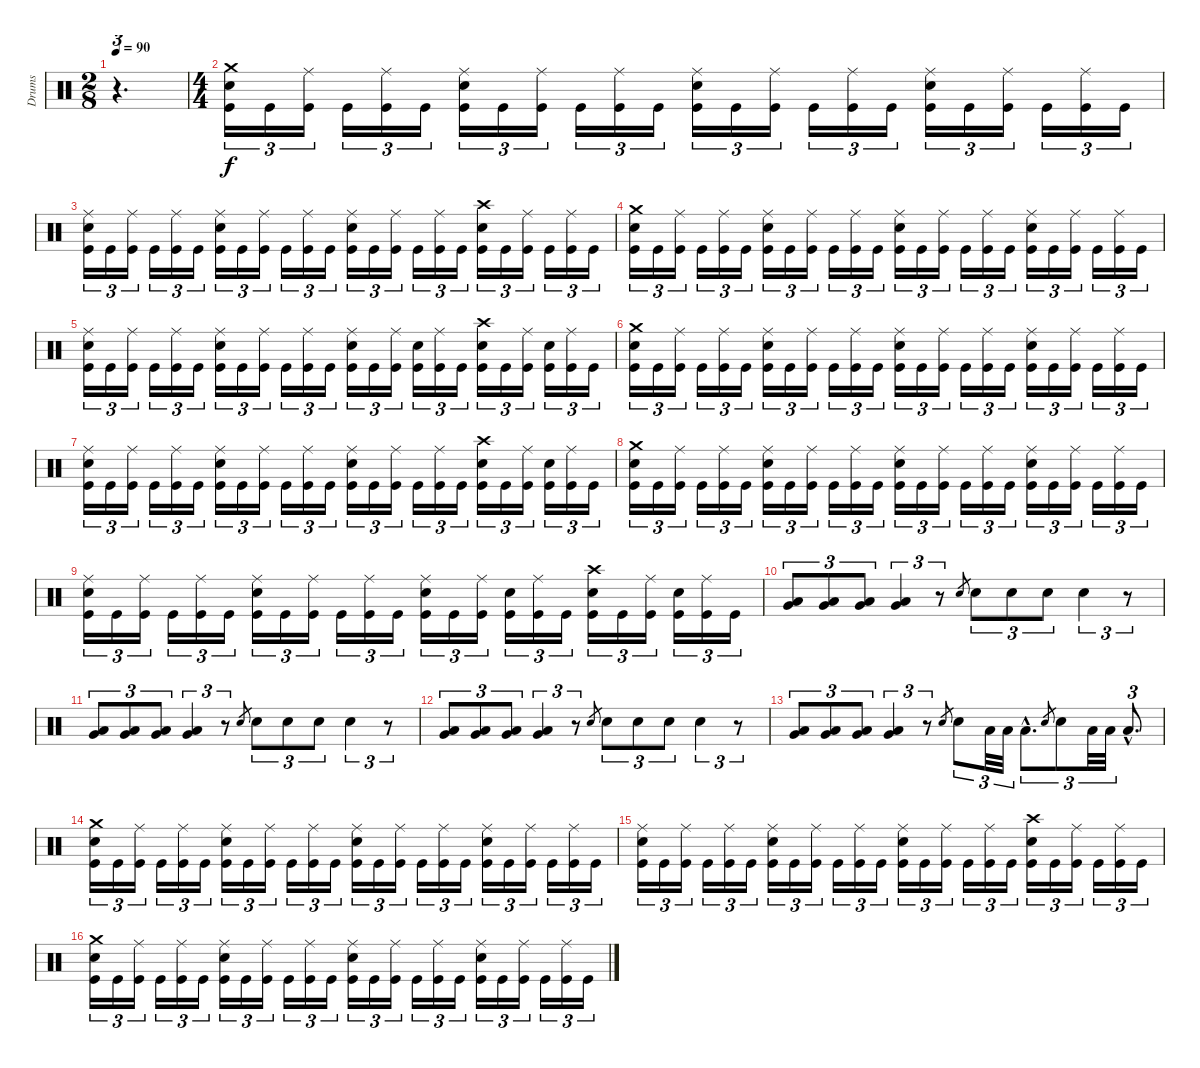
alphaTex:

\track ("Drums" "Drums") {instrument percussion}
\staff {score}
\articulation defaults
\ts (2 8)
\tempo 90
\clef neutral
\ks c
r.4{d tu (3 2) dy f} |
\ts (4 4)
("Crash medium (hit)" "Snare (hit) 2" "Kick (hit)").16{tu (3 2)} "Kick (hit)".16{tu (3 2)} ("Ride (middle)" "Kick (hit)").16{tu (3 2)} "Kick (hit)".16{tu (3 2)} ("Ride (middle)" "Kick (hit)").16{tu (3 2)} "Kick (hit)".16{tu (3 2)} ("Ride (middle)" "Snare (hit) 2" "Kick (hit)").16{tu (3 2)} "Kick (hit)".16{tu (3 2)} ("Ride (middle)" "Kick (hit)").16{tu (3 2)} "Kick (hit)".16{tu (3 2)} ("Ride (middle)" "Kick (hit)").16{tu (3 2)} "Kick (hit)".16{tu (3 2)} ("Ride (middle)" "Snare (hit) 2" "Kick (hit)").16{tu (3 2)} "Kick (hit)".16{tu (3 2)} ("Ride (middle)" "Kick (hit)").16{tu (3 2)} "Kick (hit)".16{tu (3 2)} ("Ride (middle)" "Kick (hit)").16{tu (3 2)} "Kick (hit)".16{tu (3 2)} ("Ride (middle)" "Snare (hit) 2" "Kick (hit)").16{tu (3 2)} "Kick (hit)".16{tu (3 2)} ("Ride (middle)" "Kick (hit)").16{tu (3 2)} "Kick (hit)".16{tu (3 2)} ("Ride (middle)" "Kick (hit)").16{tu (3 2)} "Kick (hit)".16{tu (3 2)} |
("Ride (middle)" "Snare (hit) 2" "Kick (hit)").16{tu (3 2)} "Kick (hit)".16{tu (3 2)} ("Ride (middle)" "Kick (hit)").16{tu (3 2)} "Kick (hit)".16{tu (3 2)} ("Ride (middle)" "Kick (hit)").16{tu (3 2)} "Kick (hit)".16{tu (3 2)} ("Ride (middle)" "Snare (hit) 2" "Kick (hit)").16{tu (3 2)} "Kick (hit)".16{tu (3 2)} ("Ride (middle)" "Kick (hit)").16{tu (3 2)} "Kick (hit)".16{tu (3 2)} ("Ride (middle)" "Kick (hit)").16{tu (3 2)} "Kick (hit)".16{tu (3 2)} ("Ride (middle)" "Snare (hit) 2" "Kick (hit)").16{tu (3 2)} "Kick (hit)".16{tu (3 2)} ("Ride (middle)" "Kick (hit)").16{tu (3 2)} "Kick (hit)".16{tu (3 2)} ("Ride (middle)" "Kick (hit)").16{tu (3 2)} "Kick (hit)".16{tu (3 2)} ("Crash high (hit)" "Snare (hit) 2" "Kick (hit)").16{tu (3 2)} "Kick (hit)".16{tu (3 2)} ("Ride (middle)" "Kick (hit)").16{tu (3 2)} "Kick (hit)".16{tu (3 2)} ("Ride (middle)" "Kick (hit)").16{tu (3 2)} "Kick (hit)".16{tu (3 2)} |
("Crash medium (hit)" "Snare (hit) 2" "Kick (hit)").16{tu (3 2)} "Kick (hit)".16{tu (3 2)} ("Ride (middle)" "Kick (hit)").16{tu (3 2)} "Kick (hit)".16{tu (3 2)} ("Ride (middle)" "Kick (hit)").16{tu (3 2)} "Kick (hit)".16{tu (3 2)} ("Ride (middle)" "Snare (hit) 2" "Kick (hit)").16{tu (3 2)} "Kick (hit)".16{tu (3 2)} ("Ride (middle)" "Kick (hit)").16{tu (3 2)} "Kick (hit)".16{tu (3 2)} ("Ride (middle)" "Kick (hit)").16{tu (3 2)} "Kick (hit)".16{tu (3 2)} ("Ride (middle)" "Snare (hit) 2" "Kick (hit)").16{tu (3 2)} "Kick (hit)".16{tu (3 2)} ("Ride (middle)" "Kick (hit)").16{tu (3 2)} "Kick (hit)".16{tu (3 2)} ("Ride (middle)" "Kick (hit)").16{tu (3 2)} "Kick (hit)".16{tu (3 2)} ("Ride (middle)" "Snare (hit) 2" "Kick (hit)").16{tu (3 2)} "Kick (hit)".16{tu (3 2)} ("Ride (middle)" "Kick (hit)").16{tu (3 2)} "Kick (hit)".16{tu (3 2)} ("Ride (middle)" "Kick (hit)").16{tu (3 2)} "Kick (hit)".16{tu (3 2)} |
("Ride (middle)" "Snare (hit) 2" "Kick (hit)").16{tu (3 2)} "Kick (hit)".16{tu (3 2)} ("Ride (middle)" "Kick (hit)").16{tu (3 2)} "Kick (hit)".16{tu (3 2)} ("Ride (middle)" "Kick (hit)").16{tu (3 2)} "Kick (hit)".16{tu (3 2)} ("Ride (middle)" "Snare (hit) 2" "Kick (hit)").16{tu (3 2)} "Kick (hit)".16{tu (3 2)} ("Ride (middle)" "Kick (hit)").16{tu (3 2)} "Kick (hit)".16{tu (3 2)} ("Ride (middle)" "Kick (hit)").16{tu (3 2)} "Kick (hit)".16{tu (3 2)} ("Ride (middle)" "Snare (hit) 2" "Kick (hit)").16{tu (3 2)} "Kick (hit)".16{tu (3 2)} ("Ride (middle)" "Kick (hit)").16{tu (3 2)} ("Snare (hit) 2" "Kick (hit)").16{tu (3 2)} ("Ride (middle)" "Kick (hit)").16{tu (3 2)} "Kick (hit)".16{tu (3 2)} ("Crash high (hit)" "Snare (hit) 2" "Kick (hit)").16{tu (3 2)} "Kick (hit)".16{tu (3 2)} ("Ride (middle)" "Kick (hit)").16{tu (3 2)} ("Snare (hit) 2" "Kick (hit)").16{tu (3 2)} ("Ride (middle)" "Kick (hit)").16{tu (3 2)} "Kick (hit)".16{tu (3 2)} |
("Crash medium (hit)" "Snare (hit) 2" "Kick (hit)").16{tu (3 2)} "Kick (hit)".16{tu (3 2)} ("Ride (middle)" "Kick (hit)").16{tu (3 2)} "Kick (hit)".16{tu (3 2)} ("Ride (middle)" "Kick (hit)").16{tu (3 2)} "Kick (hit)".16{tu (3 2)} ("Ride (middle)" "Snare (hit) 2" "Kick (hit)").16{tu (3 2)} "Kick (hit)".16{tu (3 2)} ("Ride (middle)" "Kick (hit)").16{tu (3 2)} "Kick (hit)".16{tu (3 2)} ("Ride (middle)" "Kick (hit)").16{tu (3 2)} "Kick (hit)".16{tu (3 2)} ("Ride (middle)" "Snare (hit) 2" "Kick (hit)").16{tu (3 2)} "Kick (hit)".16{tu (3 2)} ("Ride (middle)" "Kick (hit)").16{tu (3 2)} "Kick (hit)".16{tu (3 2)} ("Ride (middle)" "Kick (hit)").16{tu (3 2)} "Kick (hit)".16{tu (3 2)} ("Ride (middle)" "Snare (hit) 2" "Kick (hit)").16{tu (3 2)} "Kick (hit)".16{tu (3 2)} ("Ride (middle)" "Kick (hit)").16{tu (3 2)} "Kick (hit)".16{tu (3 2)} ("Ride (middle)" "Kick (hit)").16{tu (3 2)} "Kick (hit)".16{tu (3 2)} |
("Ride (middle)" "Snare (hit) 2" "Kick (hit)").16{tu (3 2)} "Kick (hit)".16{tu (3 2)} ("Ride (middle)" "Kick (hit)").16{tu (3 2)} "Kick (hit)".16{tu (3 2)} ("Ride (middle)" "Kick (hit)").16{tu (3 2)} "Kick (hit)".16{tu (3 2)} ("Ride (middle)" "Snare (hit) 2" "Kick (hit)").16{tu (3 2)} "Kick (hit)".16{tu (3 2)} ("Ride (middle)" "Kick (hit)").16{tu (3 2)} "Kick (hit)".16{tu (3 2)} ("Ride (middle)" "Kick (hit)").16{tu (3 2)} "Kick (hit)".16{tu (3 2)} ("Ride (middle)" "Snare (hit) 2" "Kick (hit)").16{tu (3 2)} "Kick (hit)".16{tu (3 2)} ("Ride (middle)" "Kick (hit)").16{tu (3 2)} "Kick (hit)".16{tu (3 2)} ("Ride (middle)" "Kick (hit)").16{tu (3 2)} "Kick (hit)".16{tu (3 2)} ("Crash high (hit)" "Snare (hit) 2" "Kick (hit)").16{tu (3 2)} "Kick (hit)".16{tu (3 2)} ("Ride (middle)" "Kick (hit)").16{tu (3 2)} ("Snare (hit) 2" "Kick (hit)").16{tu (3 2)} ("Ride (middle)" "Kick (hit)").16{tu (3 2)} "Kick (hit)".16{tu (3 2)} |
("Crash medium (hit)" "Snare (hit) 2" "Kick (hit)").16{tu (3 2)} "Kick (hit)".16{tu (3 2)} ("Ride (middle)" "Kick (hit)").16{tu (3 2)} "Kick (hit)".16{tu (3 2)} ("Ride (middle)" "Kick (hit)").16{tu (3 2)} "Kick (hit)".16{tu (3 2)} ("Ride (middle)" "Snare (hit) 2" "Kick (hit)").16{tu (3 2)} "Kick (hit)".16{tu (3 2)} ("Ride (middle)" "Kick (hit)").16{tu (3 2)} "Kick (hit)".16{tu (3 2)} ("Ride (middle)" "Kick (hit)").16{tu (3 2)} "Kick (hit)".16{tu (3 2)} ("Ride (middle)" "Snare (hit) 2" "Kick (hit)").16{tu (3 2)} "Kick (hit)".16{tu (3 2)} ("Ride (middle)" "Kick (hit)").16{tu (3 2)} "Kick (hit)".16{tu (3 2)} ("Ride (middle)" "Kick (hit)").16{tu (3 2)} "Kick (hit)".16{tu (3 2)} ("Ride (middle)" "Snare (hit) 2" "Kick (hit)").16{tu (3 2)} "Kick (hit)".16{tu (3 2)} ("Ride (middle)" "Kick (hit)").16{tu (3 2)} "Kick (hit)".16{tu (3 2)} ("Ride (middle)" "Kick (hit)").16{tu (3 2)} "Kick (hit)".16{tu (3 2)} |
("Ride (middle)" "Snare (hit) 2" "Kick (hit)").16{tu (3 2)} "Kick (hit)".16{tu (3 2)} ("Ride (middle)" "Kick (hit)").16{tu (3 2)} "Kick (hit)".16{tu (3 2)} ("Ride (middle)" "Kick (hit)").16{tu (3 2)} "Kick (hit)".16{tu (3 2)} ("Ride (middle)" "Snare (hit) 2" "Kick (hit)").16{tu (3 2)} "Kick (hit)".16{tu (3 2)} ("Ride (middle)" "Kick (hit)").16{tu (3 2)} "Kick (hit)".16{tu (3 2)} ("Ride (middle)" "Kick (hit)").16{tu (3 2)} "Kick (hit)".16{tu (3 2)} ("Ride (middle)" "Snare (hit) 2" "Kick (hit)").16{tu (3 2)} "Kick (hit)".16{tu (3 2)} ("Ride (middle)" "Kick (hit)").16{tu (3 2)} ("Snare (hit) 2" "Kick (hit)").16{tu (3 2)} ("Ride (middle)" "Kick (hit)").16{tu (3 2)} "Kick (hit)".16{tu (3 2)} ("Crash high (hit)" "Snare (hit) 2" "Kick (hit)").16{tu (3 2)} "Kick (hit)".16{tu (3 2)} ("Ride (middle)" "Kick (hit)").16{tu (3 2)} ("Snare (hit) 2" "Kick (hit)").16{tu (3 2)} ("Ride (middle)" "Kick (hit)").16{tu (3 2)} "Kick (hit)".16{tu (3 2)} |
("Very Low Tom (hit)" "Low Floor Tom (hit)").8{tu (3 2)} ("Very Low Tom (hit)" "Low Floor Tom (hit)").8{tu (3 2)} ("Very Low Tom (hit)" "Low Floor Tom (hit)").8{tu (3 2)} ("Very Low Tom (hit)" "Low Floor Tom (hit)").4{tu (3 2)} r.8{tu (3 2)} "Snare (hit) 2".8{gr} "Snare (hit) 2".8{tu (3 2)} "Snare (hit) 2".8{tu (3 2)} "Snare (hit) 2".8{tu (3 2)} "Snare (hit) 2".4{tu (3 2)} r.8{tu (3 2)} |
("Very Low Tom (hit)" "Low Floor Tom (hit)").8{tu (3 2)} ("Very Low Tom (hit)" "Low Floor Tom (hit)").8{tu (3 2)} ("Very Low Tom (hit)" "Low Floor Tom (hit)").8{tu (3 2)} ("Very Low Tom (hit)" "Low Floor Tom (hit)").4{tu (3 2)} r.8{tu (3 2)} "Snare (hit) 2".8{gr} "Snare (hit) 2".8{tu (3 2)} "Snare (hit) 2".8{tu (3 2)} "Snare (hit) 2".8{tu (3 2)} "Snare (hit) 2".4{tu (3 2)} r.8{tu (3 2)} |
("Very Low Tom (hit)" "Low Floor Tom (hit)").8{tu (3 2)} ("Very Low Tom (hit)" "Low Floor Tom (hit)").8{tu (3 2)} ("Very Low Tom (hit)" "Low Floor Tom (hit)").8{tu (3 2)} ("Very Low Tom (hit)" "Low Floor Tom (hit)").4{tu (3 2)} r.8{tu (3 2)} "Snare (hit) 2".8{gr} "Snare (hit) 2".8{tu (3 2)} "Snare (hit) 2".8{tu (3 2)} "Snare (hit) 2".8{tu (3 2)} "Snare (hit) 2".4{tu (3 2)} r.8{tu (3 2)} |
("Very Low Tom (hit)" "Low Floor Tom (hit)").8{tu (3 2)} ("Very Low Tom (hit)" "Low Floor Tom (hit)").8{tu (3 2)} ("Very Low Tom (hit)" "Low Floor Tom (hit)").8{tu (3 2)} ("Very Low Tom (hit)" "Low Floor Tom (hit)").4{tu (3 2)} r.8{tu (3 2)} "Snare (hit) 2".8{gr} "Snare (hit) 2".8{tu (3 2)} "Low Floor Tom (hit)".32{tu (3 2)} "Low Floor Tom (hit)".32{tu (3 2)} "Low Floor Tom (hit)"{hac}.8{d tu (3 2)} "Snare (hit) 2".8{gr} "Snare (hit) 2".8{tu (3 2)} "Low Floor Tom (hit)".32{tu (3 2)} "Low Floor Tom (hit)".32{tu (3 2)} "Low Floor Tom (hit)"{hac}.8{d tu (3 2)} |
("Crash medium (hit)" "Snare (hit) 2" "Kick (hit)").16{tu (3 2)} "Kick (hit)".16{tu (3 2)} ("Ride (middle)" "Kick (hit)").16{tu (3 2)} "Kick (hit)".16{tu (3 2)} ("Ride (middle)" "Kick (hit)").16{tu (3 2)} "Kick (hit)".16{tu (3 2)} ("Ride (middle)" "Snare (hit) 2" "Kick (hit)").16{tu (3 2)} "Kick (hit)".16{tu (3 2)} ("Ride (middle)" "Kick (hit)").16{tu (3 2)} "Kick (hit)".16{tu (3 2)} ("Ride (middle)" "Kick (hit)").16{tu (3 2)} "Kick (hit)".16{tu (3 2)} ("Ride (middle)" "Snare (hit) 2" "Kick (hit)").16{tu (3 2)} "Kick (hit)".16{tu (3 2)} ("Ride (middle)" "Kick (hit)").16{tu (3 2)} "Kick (hit)".16{tu (3 2)} ("Ride (middle)" "Kick (hit)").16{tu (3 2)} "Kick (hit)".16{tu (3 2)} ("Ride (middle)" "Snare (hit) 2" "Kick (hit)").16{tu (3 2)} "Kick (hit)".16{tu (3 2)} ("Ride (middle)" "Kick (hit)").16{tu (3 2)} "Kick (hit)".16{tu (3 2)} ("Ride (middle)" "Kick (hit)").16{tu (3 2)} "Kick (hit)".16{tu (3 2)} |
("Ride (middle)" "Snare (hit) 2" "Kick (hit)").16{tu (3 2)} "Kick (hit)".16{tu (3 2)} ("Ride (middle)" "Kick (hit)").16{tu (3 2)} "Kick (hit)".16{tu (3 2)} ("Ride (middle)" "Kick (hit)").16{tu (3 2)} "Kick (hit)".16{tu (3 2)} ("Ride (middle)" "Snare (hit) 2" "Kick (hit)").16{tu (3 2)} "Kick (hit)".16{tu (3 2)} ("Ride (middle)" "Kick (hit)").16{tu (3 2)} "Kick (hit)".16{tu (3 2)} ("Ride (middle)" "Kick (hit)").16{tu (3 2)} "Kick (hit)".16{tu (3 2)} ("Ride (middle)" "Snare (hit) 2" "Kick (hit)").16{tu (3 2)} "Kick (hit)".16{tu (3 2)} ("Ride (middle)" "Kick (hit)").16{tu (3 2)} "Kick (hit)".16{tu (3 2)} ("Ride (middle)" "Kick (hit)").16{tu (3 2)} "Kick (hit)".16{tu (3 2)} ("Crash high (hit)" "Snare (hit) 2" "Kick (hit)").16{tu (3 2)} "Kick (hit)".16{tu (3 2)} ("Ride (middle)" "Kick (hit)").16{tu (3 2)} "Kick (hit)".16{tu (3 2)} ("Ride (middle)" "Kick (hit)").16{tu (3 2)} "Kick (hit)".16{tu (3 2)} |
("Crash medium (hit)" "Snare (hit) 2" "Kick (hit)").16{tu (3 2)} "Kick (hit)".16{tu (3 2)} ("Ride (middle)" "Kick (hit)").16{tu (3 2)} "Kick (hit)".16{tu (3 2)} ("Ride (middle)" "Kick (hit)").16{tu (3 2)} "Kick (hit)".16{tu (3 2)} ("Ride (middle)" "Snare (hit) 2" "Kick (hit)").16{tu (3 2)} "Kick (hit)".16{tu (3 2)} ("Ride (middle)" "Kick (hit)").16{tu (3 2)} "Kick (hit)".16{tu (3 2)} ("Ride (middle)" "Kick (hit)").16{tu (3 2)} "Kick (hit)".16{tu (3 2)} ("Ride (middle)" "Snare (hit) 2" "Kick (hit)").16{tu (3 2)} "Kick (hit)".16{tu (3 2)} ("Ride (middle)" "Kick (hit)").16{tu (3 2)} "Kick (hit)".16{tu (3 2)} ("Ride (middle)" "Kick (hit)").16{tu (3 2)} "Kick (hit)".16{tu (3 2)} ("Ride (middle)" "Snare (hit) 2" "Kick (hit)").16{tu (3 2)} "Kick (hit)".16{tu (3 2)} ("Ride (middle)" "Kick (hit)").16{tu (3 2)} "Kick (hit)".16{tu (3 2)} ("Ride (middle)" "Kick (hit)").16{tu (3 2)} "Kick (hit)".16{tu (3 2)}
